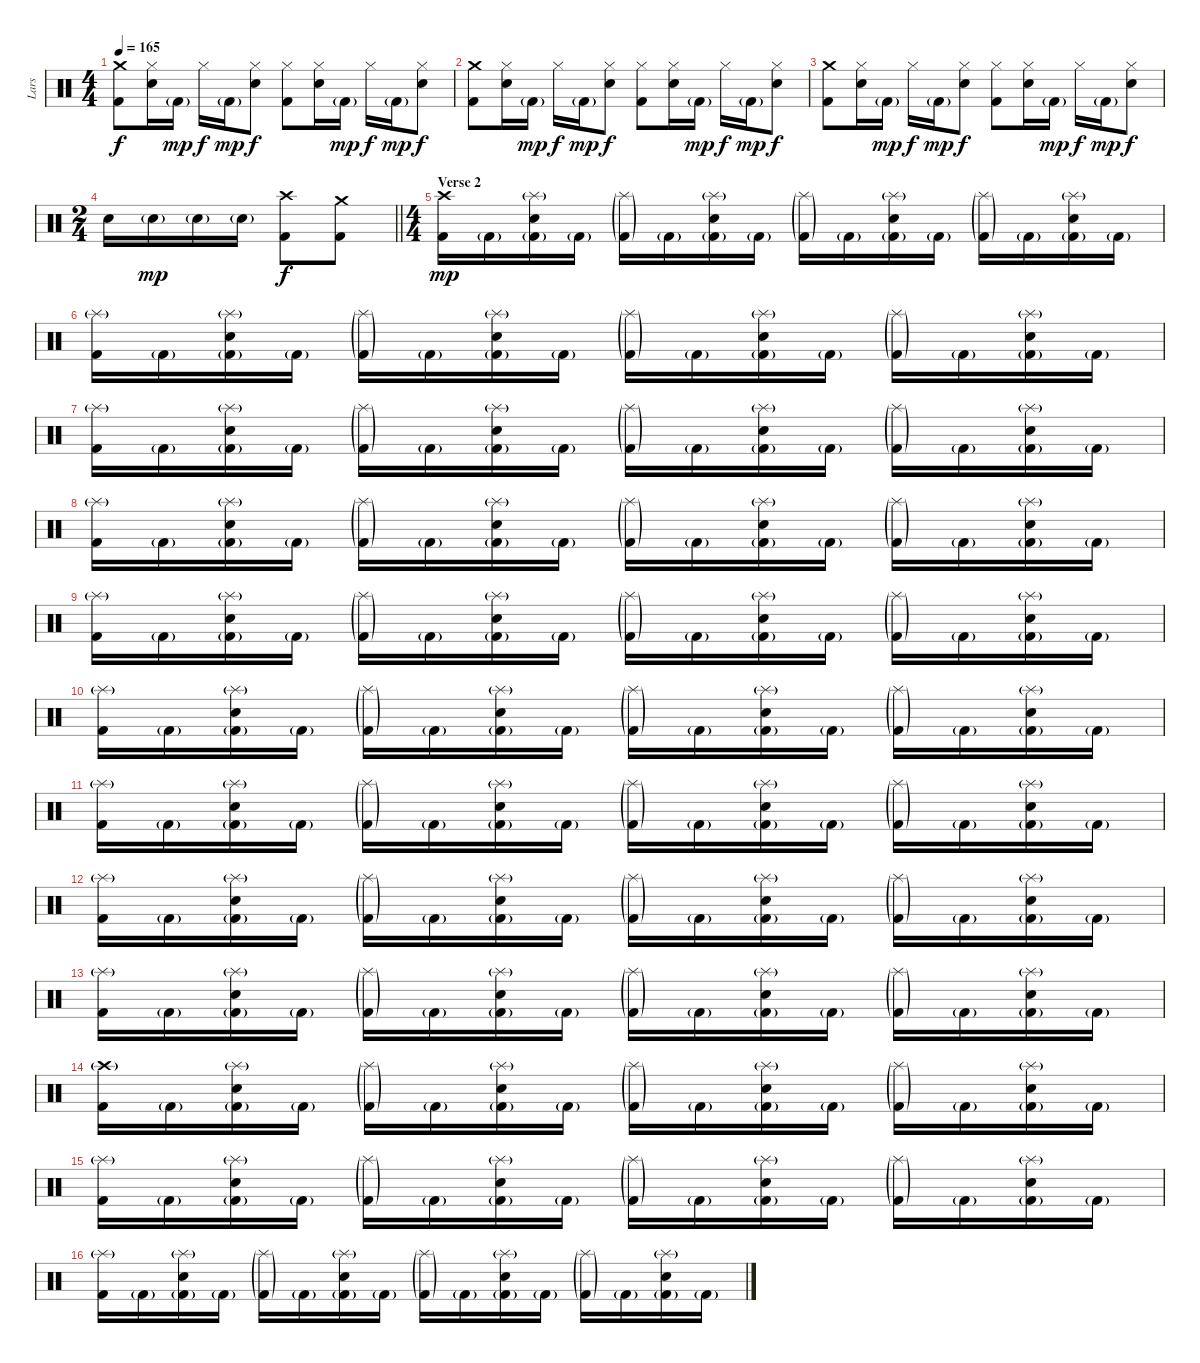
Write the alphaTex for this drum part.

\track ("Lars" "Lars") {instrument percussion}
\staff {score}
\articulation defaults
\ts (4 4)
\tempo 165
\clef neutral
\ks c
("Crash medium (hit)" "Kick (hit) 2").8{dy f} ("Hi-Hat (closed)" "Snare (hit) 2").16 "Kick (hit) 2"{g}.16{dy mp} "Hi-Hat (closed)".16{dy f} "Kick (hit) 2"{g}.16{dy mp} ("Hi-Hat (closed)" "Snare (hit) 2").8{dy f} ("Hi-Hat (closed)" "Kick (hit) 2").8 ("Hi-Hat (closed)" "Snare (hit) 2").16 "Kick (hit) 2"{g}.16{dy mp} "Hi-Hat (closed)".16{dy f} "Kick (hit) 2"{g}.16{dy mp} ("Hi-Hat (closed)" "Snare (hit) 2").8{dy f} |
("Crash medium (hit)" "Kick (hit) 2").8 ("Hi-Hat (closed)" "Snare (hit) 2").16 "Kick (hit) 2"{g}.16{dy mp} "Hi-Hat (closed)".16{dy f} "Kick (hit) 2"{g}.16{dy mp} ("Hi-Hat (closed)" "Snare (hit) 2").8{dy f} ("Hi-Hat (closed)" "Kick (hit) 2").8 ("Hi-Hat (closed)" "Snare (hit) 2").16 "Kick (hit) 2"{g}.16{dy mp} "Hi-Hat (closed)".16{dy f} "Kick (hit) 2"{g}.16{dy mp} ("Hi-Hat (closed)" "Snare (hit) 2").8{dy f} |
("Crash medium (hit)" "Kick (hit) 2").8 ("Hi-Hat (closed)" "Snare (hit) 2").16 "Kick (hit) 2"{g}.16{dy mp} "Hi-Hat (closed)".16{dy f} "Kick (hit) 2"{g}.16{dy mp} ("Hi-Hat (closed)" "Snare (hit) 2").8{dy f} ("Hi-Hat (closed)" "Kick (hit) 2").8 ("Hi-Hat (closed)" "Snare (hit) 2").16 "Kick (hit) 2"{g}.16{dy mp} "Hi-Hat (closed)".16{dy f} "Kick (hit) 2"{g}.16{dy mp} ("Hi-Hat (closed)" "Snare (hit) 2").8{dy f} |
\ts (2 4)
\barLineRight lightlight "Snare (hit) 2".16 "Snare (hit) 2"{g}.16{dy mp} "Snare (hit) 2"{g}.16 "Snare (hit) 2"{g}.16
("Crash high (hit)" "Kick (hit) 2").8{dy f} ("Crash medium (hit)" "Kick (hit) 2").8 |
\ts (4 4)
\section ("" "Verse 2")
("Crash high (hit)" "Kick (hit) 2").16{dy mp} "Kick (hit) 2"{g}.16 ("Splash (hit)"{g} "Snare (hit) 2" "Kick (hit) 2"{g}).16 "Kick (hit) 2"{g}.16 ("Splash (hit)"{g} "Kick (hit) 2"{g}).16 "Kick (hit) 2"{g}.16 ("Splash (hit)"{g} "Snare (hit) 2" "Kick (hit) 2"{g}).16 "Kick (hit) 2"{g}.16 ("Splash (hit)"{g} "Kick (hit) 2"{g}).16 "Kick (hit) 2"{g}.16 ("Splash (hit)"{g} "Snare (hit) 2" "Kick (hit) 2"{g}).16 "Kick (hit) 2"{g}.16 ("Splash (hit)"{g} "Kick (hit) 2"{g}).16 "Kick (hit) 2"{g}.16 ("Splash (hit)"{g} "Snare (hit) 2" "Kick (hit) 2"{g}).16 "Kick (hit) 2"{g}.16 |
("Splash (hit)"{g} "Kick (hit) 2").16 "Kick (hit) 2"{g}.16 ("Splash (hit)"{g} "Snare (hit) 2" "Kick (hit) 2"{g}).16 "Kick (hit) 2"{g}.16 ("Splash (hit)"{g} "Kick (hit) 2"{g}).16 "Kick (hit) 2"{g}.16 ("Splash (hit)"{g} "Snare (hit) 2" "Kick (hit) 2"{g}).16 "Kick (hit) 2"{g}.16 ("Splash (hit)"{g} "Kick (hit) 2"{g}).16 "Kick (hit) 2"{g}.16 ("Splash (hit)"{g} "Snare (hit) 2" "Kick (hit) 2"{g}).16 "Kick (hit) 2"{g}.16 ("Splash (hit)"{g} "Kick (hit) 2"{g}).16 "Kick (hit) 2"{g}.16 ("Splash (hit)"{g} "Snare (hit) 2" "Kick (hit) 2"{g}).16 "Kick (hit) 2"{g}.16 |
("Splash (hit)"{g} "Kick (hit) 2").16 "Kick (hit) 2"{g}.16 ("Splash (hit)"{g} "Snare (hit) 2" "Kick (hit) 2"{g}).16 "Kick (hit) 2"{g}.16 ("Splash (hit)"{g} "Kick (hit) 2"{g}).16 "Kick (hit) 2"{g}.16 ("Splash (hit)"{g} "Snare (hit) 2" "Kick (hit) 2"{g}).16 "Kick (hit) 2"{g}.16 ("Splash (hit)"{g} "Kick (hit) 2"{g}).16 "Kick (hit) 2"{g}.16 ("Splash (hit)"{g} "Snare (hit) 2" "Kick (hit) 2"{g}).16 "Kick (hit) 2"{g}.16 ("Splash (hit)"{g} "Kick (hit) 2"{g}).16 "Kick (hit) 2"{g}.16 ("Splash (hit)"{g} "Snare (hit) 2" "Kick (hit) 2"{g}).16 "Kick (hit) 2"{g}.16 |
("Splash (hit)"{g} "Kick (hit) 2").16 "Kick (hit) 2"{g}.16 ("Splash (hit)"{g} "Snare (hit) 2" "Kick (hit) 2"{g}).16 "Kick (hit) 2"{g}.16 ("Splash (hit)"{g} "Kick (hit) 2"{g}).16 "Kick (hit) 2"{g}.16 ("Splash (hit)"{g} "Snare (hit) 2" "Kick (hit) 2"{g}).16 "Kick (hit) 2"{g}.16 ("Splash (hit)"{g} "Kick (hit) 2"{g}).16 "Kick (hit) 2"{g}.16 ("Splash (hit)"{g} "Snare (hit) 2" "Kick (hit) 2"{g}).16 "Kick (hit) 2"{g}.16 ("Splash (hit)"{g} "Kick (hit) 2"{g}).16 "Kick (hit) 2"{g}.16 ("Splash (hit)"{g} "Snare (hit) 2" "Kick (hit) 2"{g}).16 "Kick (hit) 2"{g}.16 |
("Splash (hit)"{g} "Kick (hit) 2").16 "Kick (hit) 2"{g}.16 ("Splash (hit)"{g} "Snare (hit) 2" "Kick (hit) 2"{g}).16 "Kick (hit) 2"{g}.16 ("Splash (hit)"{g} "Kick (hit) 2"{g}).16 "Kick (hit) 2"{g}.16 ("Splash (hit)"{g} "Snare (hit) 2" "Kick (hit) 2"{g}).16 "Kick (hit) 2"{g}.16 ("Splash (hit)"{g} "Kick (hit) 2"{g}).16 "Kick (hit) 2"{g}.16 ("Splash (hit)"{g} "Snare (hit) 2" "Kick (hit) 2"{g}).16 "Kick (hit) 2"{g}.16 ("Splash (hit)"{g} "Kick (hit) 2"{g}).16 "Kick (hit) 2"{g}.16 ("Splash (hit)"{g} "Snare (hit) 2" "Kick (hit) 2"{g}).16 "Kick (hit) 2"{g}.16 |
("Splash (hit)"{g} "Kick (hit) 2").16 "Kick (hit) 2"{g}.16 ("Splash (hit)"{g} "Snare (hit) 2" "Kick (hit) 2"{g}).16 "Kick (hit) 2"{g}.16 ("Splash (hit)"{g} "Kick (hit) 2"{g}).16 "Kick (hit) 2"{g}.16 ("Splash (hit)"{g} "Snare (hit) 2" "Kick (hit) 2"{g}).16 "Kick (hit) 2"{g}.16 ("Splash (hit)"{g} "Kick (hit) 2"{g}).16 "Kick (hit) 2"{g}.16 ("Splash (hit)"{g} "Snare (hit) 2" "Kick (hit) 2"{g}).16 "Kick (hit) 2"{g}.16 ("Splash (hit)"{g} "Kick (hit) 2"{g}).16 "Kick (hit) 2"{g}.16 ("Splash (hit)"{g} "Snare (hit) 2" "Kick (hit) 2"{g}).16 "Kick (hit) 2"{g}.16 |
("Splash (hit)"{g} "Kick (hit) 2").16 "Kick (hit) 2"{g}.16 ("Splash (hit)"{g} "Snare (hit) 2" "Kick (hit) 2"{g}).16 "Kick (hit) 2"{g}.16 ("Splash (hit)"{g} "Kick (hit) 2"{g}).16 "Kick (hit) 2"{g}.16 ("Splash (hit)"{g} "Snare (hit) 2" "Kick (hit) 2"{g}).16 "Kick (hit) 2"{g}.16 ("Splash (hit)"{g} "Kick (hit) 2"{g}).16 "Kick (hit) 2"{g}.16 ("Splash (hit)"{g} "Snare (hit) 2" "Kick (hit) 2"{g}).16 "Kick (hit) 2"{g}.16 ("Splash (hit)"{g} "Kick (hit) 2"{g}).16 "Kick (hit) 2"{g}.16 ("Splash (hit)"{g} "Snare (hit) 2" "Kick (hit) 2"{g}).16 "Kick (hit) 2"{g}.16 |
("Splash (hit)"{g} "Kick (hit) 2").16 "Kick (hit) 2"{g}.16 ("Splash (hit)"{g} "Snare (hit) 2" "Kick (hit) 2"{g}).16 "Kick (hit) 2"{g}.16 ("Splash (hit)"{g} "Kick (hit) 2"{g}).16 "Kick (hit) 2"{g}.16 ("Splash (hit)"{g} "Snare (hit) 2" "Kick (hit) 2"{g}).16 "Kick (hit) 2"{g}.16 ("Splash (hit)"{g} "Kick (hit) 2"{g}).16 "Kick (hit) 2"{g}.16 ("Splash (hit)"{g} "Snare (hit) 2" "Kick (hit) 2"{g}).16 "Kick (hit) 2"{g}.16 ("Splash (hit)"{g} "Kick (hit) 2"{g}).16 "Kick (hit) 2"{g}.16 ("Splash (hit)"{g} "Snare (hit) 2" "Kick (hit) 2"{g}).16 "Kick (hit) 2"{g}.16 |
("Splash (hit)"{g} "Kick (hit) 2").16 "Kick (hit) 2"{g}.16 ("Splash (hit)"{g} "Snare (hit) 2" "Kick (hit) 2"{g}).16 "Kick (hit) 2"{g}.16 ("Splash (hit)"{g} "Kick (hit) 2"{g}).16 "Kick (hit) 2"{g}.16 ("Splash (hit)"{g} "Snare (hit) 2" "Kick (hit) 2"{g}).16 "Kick (hit) 2"{g}.16 ("Splash (hit)"{g} "Kick (hit) 2"{g}).16 "Kick (hit) 2"{g}.16 ("Splash (hit)"{g} "Snare (hit) 2" "Kick (hit) 2"{g}).16 "Kick (hit) 2"{g}.16 ("Splash (hit)"{g} "Kick (hit) 2"{g}).16 "Kick (hit) 2"{g}.16 ("Splash (hit)"{g} "Snare (hit) 2" "Kick (hit) 2"{g}).16 "Kick (hit) 2"{g}.16 |
("Crash high (hit)"{g} "Kick (hit) 2").16 "Kick (hit) 2"{g}.16 ("Splash (hit)"{g} "Snare (hit) 2" "Kick (hit) 2"{g}).16 "Kick (hit) 2"{g}.16 ("Splash (hit)"{g} "Kick (hit) 2"{g}).16 "Kick (hit) 2"{g}.16 ("Splash (hit)"{g} "Snare (hit) 2" "Kick (hit) 2"{g}).16 "Kick (hit) 2"{g}.16 ("Splash (hit)"{g} "Kick (hit) 2"{g}).16 "Kick (hit) 2"{g}.16 ("Splash (hit)"{g} "Snare (hit) 2" "Kick (hit) 2"{g}).16 "Kick (hit) 2"{g}.16 ("Splash (hit)"{g} "Kick (hit) 2"{g}).16 "Kick (hit) 2"{g}.16 ("Splash (hit)"{g} "Snare (hit) 2" "Kick (hit) 2"{g}).16 "Kick (hit) 2"{g}.16 |
("Splash (hit)"{g} "Kick (hit) 2").16 "Kick (hit) 2"{g}.16 ("Splash (hit)"{g} "Snare (hit) 2" "Kick (hit) 2"{g}).16 "Kick (hit) 2"{g}.16 ("Splash (hit)"{g} "Kick (hit) 2"{g}).16 "Kick (hit) 2"{g}.16 ("Splash (hit)"{g} "Snare (hit) 2" "Kick (hit) 2"{g}).16 "Kick (hit) 2"{g}.16 ("Splash (hit)"{g} "Kick (hit) 2"{g}).16 "Kick (hit) 2"{g}.16 ("Splash (hit)"{g} "Snare (hit) 2" "Kick (hit) 2"{g}).16 "Kick (hit) 2"{g}.16 ("Splash (hit)"{g} "Kick (hit) 2"{g}).16 "Kick (hit) 2"{g}.16 ("Splash (hit)"{g} "Snare (hit) 2" "Kick (hit) 2"{g}).16 "Kick (hit) 2"{g}.16 |
("Splash (hit)"{g} "Kick (hit) 2").16 "Kick (hit) 2"{g}.16 ("Splash (hit)"{g} "Snare (hit) 2" "Kick (hit) 2"{g}).16 "Kick (hit) 2"{g}.16 ("Splash (hit)"{g} "Kick (hit) 2"{g}).16 "Kick (hit) 2"{g}.16 ("Splash (hit)"{g} "Snare (hit) 2" "Kick (hit) 2"{g}).16 "Kick (hit) 2"{g}.16 ("Splash (hit)"{g} "Kick (hit) 2"{g}).16 "Kick (hit) 2"{g}.16 ("Splash (hit)"{g} "Snare (hit) 2" "Kick (hit) 2"{g}).16 "Kick (hit) 2"{g}.16 ("Splash (hit)"{g} "Kick (hit) 2"{g}).16 "Kick (hit) 2"{g}.16 ("Splash (hit)"{g} "Snare (hit) 2" "Kick (hit) 2"{g}).16 "Kick (hit) 2"{g}.16
